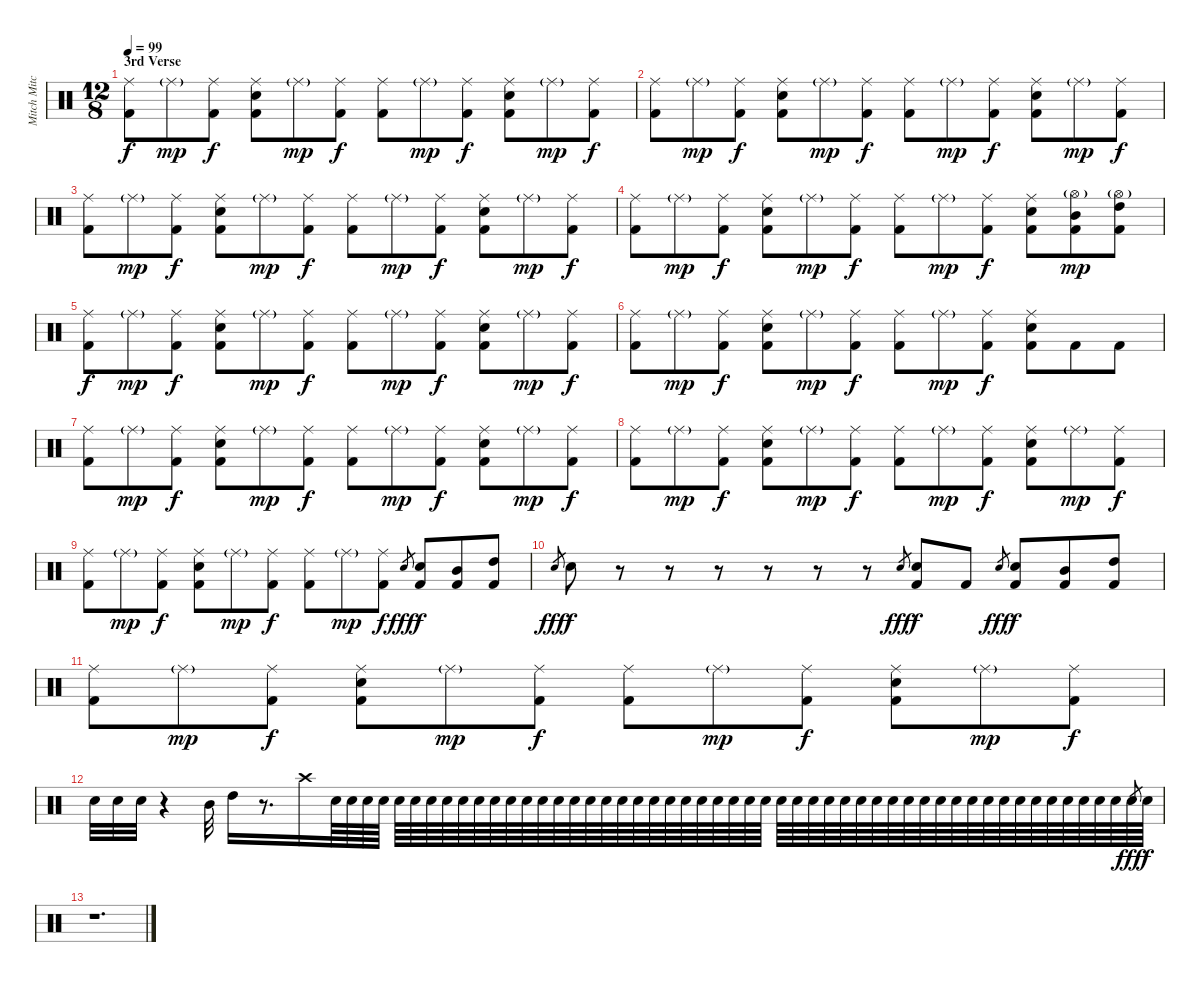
\track ("Mitch Mitchell" "Mitch Mitc") {instrument percussion}
\staff {score}
\articulation defaults
\ts (12 8)
\section ("" "3rd Verse")
\tempo 99
\clef neutral
\ks c
("Ride (middle)" "Kick (hit) 2").8{dy f} "Ride (middle)"{g}.8{dy mp} ("Ride (middle)" "Kick (hit) 2").8{dy f} ("Ride (middle)" "Electric Snare (hit)" "Kick (hit) 2").8 "Ride (middle)"{g}.8{dy mp} ("Ride (middle)" "Kick (hit) 2").8{dy f} ("Ride (middle)" "Kick (hit) 2").8 "Ride (middle)"{g}.8{dy mp} ("Ride (middle)" "Kick (hit) 2").8{dy f} ("Ride (middle)" "Electric Snare (hit)" "Kick (hit) 2").8 "Ride (middle)"{g}.8{dy mp} ("Ride (middle)" "Kick (hit) 2").8{dy f} |
("Ride (middle)" "Kick (hit) 2").8 "Ride (middle)"{g}.8{dy mp} ("Ride (middle)" "Kick (hit) 2").8{dy f} ("Ride (middle)" "Electric Snare (hit)" "Kick (hit) 2").8 "Ride (middle)"{g}.8{dy mp} ("Ride (middle)" "Kick (hit) 2").8{dy f} ("Ride (middle)" "Kick (hit) 2").8 "Ride (middle)"{g}.8{dy mp} ("Ride (middle)" "Kick (hit) 2").8{dy f} ("Ride (middle)" "Electric Snare (hit)" "Kick (hit) 2").8 "Ride (middle)"{g}.8{dy mp} ("Ride (middle)" "Kick (hit) 2").8{dy f} |
("Ride (middle)" "Kick (hit) 2").8 "Ride (middle)"{g}.8{dy mp} ("Ride (middle)" "Kick (hit) 2").8{dy f} ("Ride (middle)" "Electric Snare (hit)" "Kick (hit) 2").8 "Ride (middle)"{g}.8{dy mp} ("Ride (middle)" "Kick (hit) 2").8{dy f} ("Ride (middle)" "Kick (hit) 2").8 "Ride (middle)"{g}.8{dy mp} ("Ride (middle)" "Kick (hit) 2").8{dy f} ("Ride (middle)" "Electric Snare (hit)" "Kick (hit) 2").8 "Ride (middle)"{g}.8{dy mp} ("Ride (middle)" "Kick (hit) 2").8{dy f} |
("Ride (middle)" "Kick (hit) 2").8 "Ride (middle)"{g}.8{dy mp} ("Ride (middle)" "Kick (hit) 2").8{dy f} ("Ride (middle)" "Electric Snare (hit)" "Kick (hit) 2").8 "Ride (middle)"{g}.8{dy mp} ("Ride (middle)" "Kick (hit) 2").8{dy f} ("Ride (middle)" "Kick (hit) 2").8 "Ride (middle)"{g}.8{dy mp} ("Ride (middle)" "Kick (hit) 2").8{dy f} ("Ride (middle)" "Electric Snare (hit)" "Kick (hit) 2").8 ("Hi-Hat (open)"{g} "Mid Tom (hit)" "Kick (hit) 2").8{dy mp} ("Hi-Hat (open)"{g} "High Tom (hit)" "Kick (hit) 2").8 |
("Ride (middle)" "Kick (hit) 2").8{dy f} "Ride (middle)"{g}.8{dy mp} ("Ride (middle)" "Kick (hit) 2").8{dy f} ("Ride (middle)" "Electric Snare (hit)" "Kick (hit) 2").8 "Ride (middle)"{g}.8{dy mp} ("Ride (middle)" "Kick (hit) 2").8{dy f} ("Ride (middle)" "Kick (hit) 2").8 "Ride (middle)"{g}.8{dy mp} ("Ride (middle)" "Kick (hit) 2").8{dy f} ("Ride (middle)" "Electric Snare (hit)" "Kick (hit) 2").8 "Ride (middle)"{g}.8{dy mp} ("Ride (middle)" "Kick (hit) 2").8{dy f} |
("Ride (middle)" "Kick (hit) 2").8 "Ride (middle)"{g}.8{dy mp} ("Ride (middle)" "Kick (hit) 2").8{dy f} ("Ride (middle)" "Electric Snare (hit)" "Kick (hit) 2").8 "Ride (middle)"{g}.8{dy mp} ("Ride (middle)" "Kick (hit) 2").8{dy f} ("Ride (middle)" "Kick (hit) 2").8 "Ride (middle)"{g}.8{dy mp} ("Ride (middle)" "Kick (hit) 2").8{dy f} ("Ride (middle)" "Electric Snare (hit)" "Kick (hit) 2").8 "Kick (hit) 2".8 "Kick (hit) 2".8 |
("Ride (middle)" "Kick (hit) 2").8 "Ride (middle)"{g}.8{dy mp} ("Ride (middle)" "Kick (hit) 2").8{dy f} ("Ride (middle)" "Electric Snare (hit)" "Kick (hit) 2").8 "Ride (middle)"{g}.8{dy mp} ("Ride (middle)" "Kick (hit) 2").8{dy f} ("Ride (middle)" "Kick (hit) 2").8 "Ride (middle)"{g}.8{dy mp} ("Ride (middle)" "Kick (hit) 2").8{dy f} ("Ride (middle)" "Electric Snare (hit)" "Kick (hit) 2").8 "Ride (middle)"{g}.8{dy mp} ("Ride (middle)" "Kick (hit) 2").8{dy f} |
("Ride (middle)" "Kick (hit) 2").8 "Ride (middle)"{g}.8{dy mp} ("Ride (middle)" "Kick (hit) 2").8{dy f} ("Ride (middle)" "Electric Snare (hit)" "Kick (hit) 2").8 "Ride (middle)"{g}.8{dy mp} ("Ride (middle)" "Kick (hit) 2").8{dy f} ("Ride (middle)" "Kick (hit) 2").8 "Ride (middle)"{g}.8{dy mp} ("Ride (middle)" "Kick (hit) 2").8{dy f} ("Ride (middle)" "Electric Snare (hit)" "Kick (hit) 2").8 "Ride (middle)"{g}.8{dy mp} ("Ride (middle)" "Kick (hit) 2").8{dy f} |
("Ride (middle)" "Kick (hit) 2").8 "Ride (middle)"{g}.8{dy mp} ("Ride (middle)" "Kick (hit) 2").8{dy f} ("Ride (middle)" "Electric Snare (hit)" "Kick (hit) 2").8 "Ride (middle)"{g}.8{dy mp} ("Ride (middle)" "Kick (hit) 2").8{dy f} ("Ride (middle)" "Kick (hit) 2").8 "Ride (middle)"{g}.8{dy mp} ("Ride (middle)" "Kick (hit) 2").8{dy f} "Electric Snare (hit)".8{gr dy fff} ("Electric Snare (hit)" "Kick (hit) 2").8{dy f} ("Mid Tom (hit)" "Kick (hit) 2").8 ("High Tom (hit)" "Kick (hit) 2").8 |
"Electric Snare (hit)".8{gr dy fff} "Electric Snare (hit)".8{dy f} r.8 r.8 r.8 r.8 r.8 r.8 "Electric Snare (hit)".8{gr dy fff} ("Electric Snare (hit)" "Kick (hit) 2").8{dy f} "Kick (hit) 2".8 "Electric Snare (hit)".8{gr dy fff} ("Electric Snare (hit)" "Kick (hit) 2").8{dy f} ("Mid Tom (hit)" "Kick (hit) 2").8 ("High Tom (hit)" "Kick (hit) 2").8 |
("Ride (middle)" "Kick (hit) 2").8 "Ride (middle)"{g}.8{dy mp} ("Ride (middle)" "Kick (hit) 2").8{dy f} ("Ride (middle)" "Electric Snare (hit)" "Kick (hit) 2").8 "Ride (middle)"{g}.8{dy mp} ("Ride (middle)" "Kick (hit) 2").8{dy f} ("Ride (middle)" "Kick (hit) 2").8 "Ride (middle)"{g}.8{dy mp} ("Ride (middle)" "Kick (hit) 2").8{dy f} ("Ride (middle)" "Electric Snare (hit)" "Kick (hit) 2").8 "Ride (middle)"{g}.8{dy mp} ("Ride (middle)" "Kick (hit) 2").8{dy f} |
"Electric Snare (hit)".32 "Electric Snare (hit)".32 "Electric Snare (hit)".32 r.4 "Mid Tom (hit)".32 "High Tom (hit)".16 r.8{d} "Crash high (hit)".16 "Electric Snare (hit)".64 "Electric Snare (hit)".64 "Electric Snare (hit)".64 "Electric Snare (hit)".64 "Electric Snare (hit)".64 "Electric Snare (hit)".64 "Electric Snare (hit)".64 "Electric Snare (hit)".64 "Electric Snare (hit)".64 "Electric Snare (hit)".64 "Electric Snare (hit)".64 "Electric Snare (hit)".64 "Electric Snare (hit)".64 "Electric Snare (hit)".64 "Electric Snare (hit)".64 "Electric Snare (hit)".64 "Electric Snare (hit)".64 "Electric Snare (hit)".64 "Electric Snare (hit)".64 "Electric Snare (hit)".64 "Electric Snare (hit)".64 "Electric Snare (hit)".64 "Electric Snare (hit)".64 "Electric Snare (hit)".64 "Electric Snare (hit)".64 "Electric Snare (hit)".64 "Electric Snare (hit)".64 "Electric Snare (hit)".64 "Electric Snare (hit)".64 "Electric Snare (hit)".64 "Electric Snare (hit)".64 "Electric Snare (hit)".64 "Electric Snare (hit)".64 "Electric Snare (hit)".64 "Electric Snare (hit)".64 "Electric Snare (hit)".64 "Electric Snare (hit)".64 "Electric Snare (hit)".64 "Electric Snare (hit)".64 "Electric Snare (hit)".64 "Electric Snare (hit)".64 "Electric Snare (hit)".64 "Electric Snare (hit)".64 "Electric Snare (hit)".64 "Electric Snare (hit)".64 "Electric Snare (hit)".64 "Electric Snare (hit)".64 "Electric Snare (hit)".64 "Electric Snare (hit)".64 "Electric Snare (hit)".64 "Electric Snare (hit)".64 "Electric Snare (hit)".8{gr dy fff} "Electric Snare (hit)".64{dy f} |
r.1{d}
